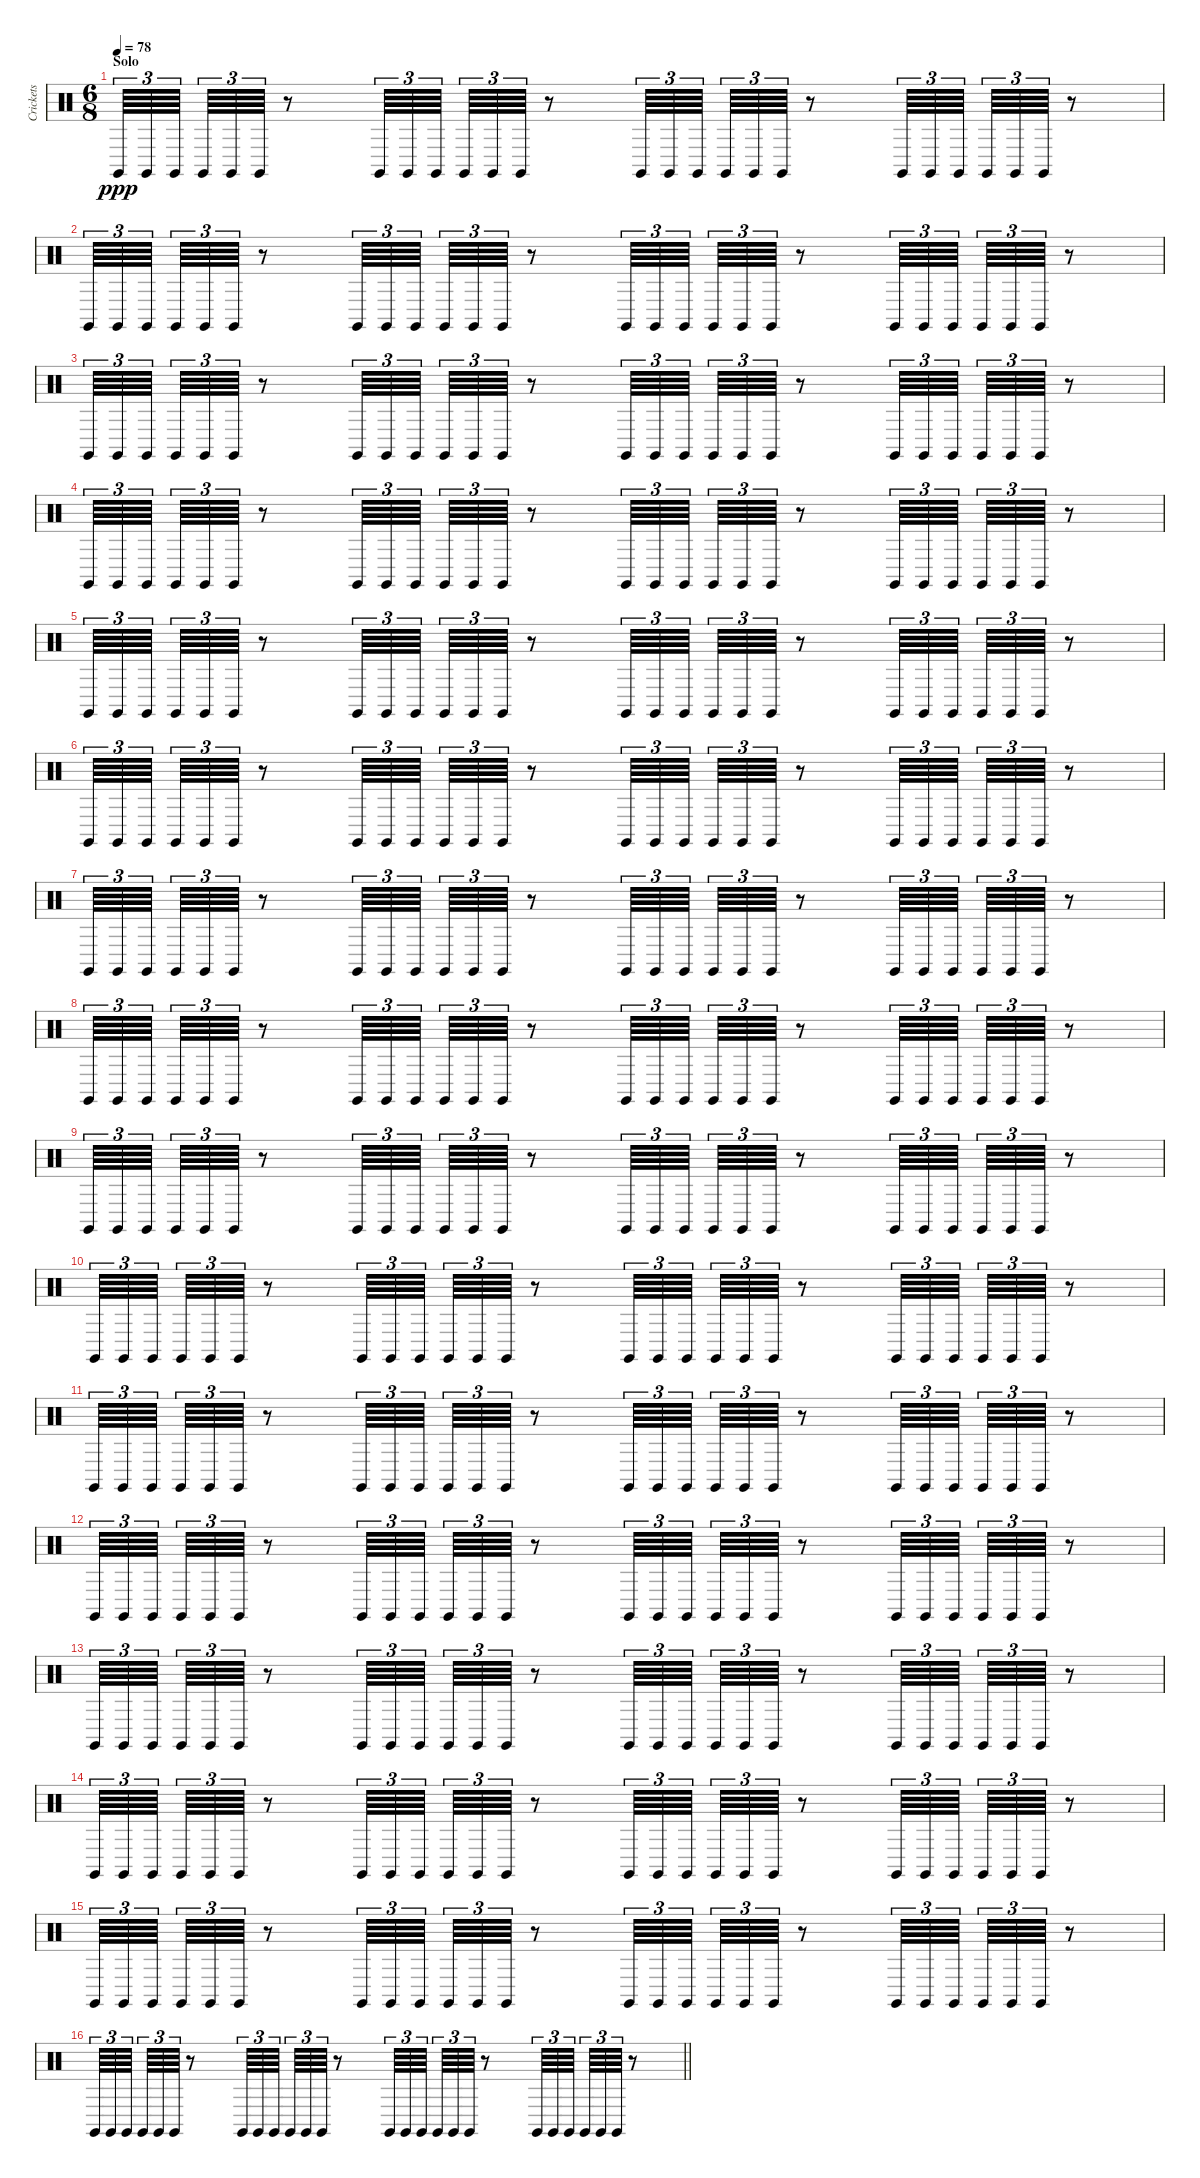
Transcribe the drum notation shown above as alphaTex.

\track ("Crickets" "Crickets") {instrument percussion}
\staff {score}
\articulation defaults
\ts (6 8)
\section ("" "Solo")
\tempo 78
\clef neutral
\ks c "Claves (hit)".64{tu (3 2) dy ppp} "Claves (hit)".64{tu (3 2)} "Claves (hit)".64{tu (3 2) beam splitsecondary} "Claves (hit)".64{tu (3 2)} "Claves (hit)".64{tu (3 2)} "Claves (hit)".64{tu (3 2)}
r.8 "Claves (hit)".64{tu (3 2)} "Claves (hit)".64{tu (3 2)} "Claves (hit)".64{tu (3 2) beam splitsecondary} "Claves (hit)".64{tu (3 2)} "Claves (hit)".64{tu (3 2)} "Claves (hit)".64{tu (3 2)} r.8 "Claves (hit)".64{tu (3 2)} "Claves (hit)".64{tu (3 2)} "Claves (hit)".64{tu (3 2) beam splitsecondary} "Claves (hit)".64{tu (3 2)} "Claves (hit)".64{tu (3 2)} "Claves (hit)".64{tu (3 2)} r.8 "Claves (hit)".64{tu (3 2)} "Claves (hit)".64{tu (3 2)} "Claves (hit)".64{tu (3 2) beam splitsecondary} "Claves (hit)".64{tu (3 2)} "Claves (hit)".64{tu (3 2)} "Claves (hit)".64{tu (3 2)} r.8 |
"Claves (hit)".64{tu (3 2)} "Claves (hit)".64{tu (3 2)} "Claves (hit)".64{tu (3 2) beam splitsecondary} "Claves (hit)".64{tu (3 2)} "Claves (hit)".64{tu (3 2)} "Claves (hit)".64{tu (3 2)} r.8 "Claves (hit)".64{tu (3 2)} "Claves (hit)".64{tu (3 2)} "Claves (hit)".64{tu (3 2) beam splitsecondary} "Claves (hit)".64{tu (3 2)} "Claves (hit)".64{tu (3 2)} "Claves (hit)".64{tu (3 2)} r.8 "Claves (hit)".64{tu (3 2)} "Claves (hit)".64{tu (3 2)} "Claves (hit)".64{tu (3 2) beam splitsecondary} "Claves (hit)".64{tu (3 2)} "Claves (hit)".64{tu (3 2)} "Claves (hit)".64{tu (3 2)} r.8 "Claves (hit)".64{tu (3 2)} "Claves (hit)".64{tu (3 2)} "Claves (hit)".64{tu (3 2) beam splitsecondary} "Claves (hit)".64{tu (3 2)} "Claves (hit)".64{tu (3 2)} "Claves (hit)".64{tu (3 2)} r.8 |
"Claves (hit)".64{tu (3 2)} "Claves (hit)".64{tu (3 2)} "Claves (hit)".64{tu (3 2) beam splitsecondary} "Claves (hit)".64{tu (3 2)} "Claves (hit)".64{tu (3 2)} "Claves (hit)".64{tu (3 2)} r.8 "Claves (hit)".64{tu (3 2)} "Claves (hit)".64{tu (3 2)} "Claves (hit)".64{tu (3 2) beam splitsecondary} "Claves (hit)".64{tu (3 2)} "Claves (hit)".64{tu (3 2)} "Claves (hit)".64{tu (3 2)} r.8 "Claves (hit)".64{tu (3 2)} "Claves (hit)".64{tu (3 2)} "Claves (hit)".64{tu (3 2) beam splitsecondary} "Claves (hit)".64{tu (3 2)} "Claves (hit)".64{tu (3 2)} "Claves (hit)".64{tu (3 2)} r.8 "Claves (hit)".64{tu (3 2)} "Claves (hit)".64{tu (3 2)} "Claves (hit)".64{tu (3 2) beam splitsecondary} "Claves (hit)".64{tu (3 2)} "Claves (hit)".64{tu (3 2)} "Claves (hit)".64{tu (3 2)} r.8 |
"Claves (hit)".64{tu (3 2)} "Claves (hit)".64{tu (3 2)} "Claves (hit)".64{tu (3 2) beam splitsecondary} "Claves (hit)".64{tu (3 2)} "Claves (hit)".64{tu (3 2)} "Claves (hit)".64{tu (3 2)} r.8 "Claves (hit)".64{tu (3 2)} "Claves (hit)".64{tu (3 2)} "Claves (hit)".64{tu (3 2) beam splitsecondary} "Claves (hit)".64{tu (3 2)} "Claves (hit)".64{tu (3 2)} "Claves (hit)".64{tu (3 2)} r.8 "Claves (hit)".64{tu (3 2)} "Claves (hit)".64{tu (3 2)} "Claves (hit)".64{tu (3 2) beam splitsecondary} "Claves (hit)".64{tu (3 2)} "Claves (hit)".64{tu (3 2)} "Claves (hit)".64{tu (3 2)} r.8 "Claves (hit)".64{tu (3 2)} "Claves (hit)".64{tu (3 2)} "Claves (hit)".64{tu (3 2) beam splitsecondary} "Claves (hit)".64{tu (3 2)} "Claves (hit)".64{tu (3 2)} "Claves (hit)".64{tu (3 2)} r.8 |
"Claves (hit)".64{tu (3 2)} "Claves (hit)".64{tu (3 2)} "Claves (hit)".64{tu (3 2) beam splitsecondary} "Claves (hit)".64{tu (3 2)} "Claves (hit)".64{tu (3 2)} "Claves (hit)".64{tu (3 2)} r.8 "Claves (hit)".64{tu (3 2)} "Claves (hit)".64{tu (3 2)} "Claves (hit)".64{tu (3 2) beam splitsecondary} "Claves (hit)".64{tu (3 2)} "Claves (hit)".64{tu (3 2)} "Claves (hit)".64{tu (3 2)} r.8 "Claves (hit)".64{tu (3 2)} "Claves (hit)".64{tu (3 2)} "Claves (hit)".64{tu (3 2) beam splitsecondary} "Claves (hit)".64{tu (3 2)} "Claves (hit)".64{tu (3 2)} "Claves (hit)".64{tu (3 2)} r.8 "Claves (hit)".64{tu (3 2)} "Claves (hit)".64{tu (3 2)} "Claves (hit)".64{tu (3 2) beam splitsecondary} "Claves (hit)".64{tu (3 2)} "Claves (hit)".64{tu (3 2)} "Claves (hit)".64{tu (3 2)} r.8 |
"Claves (hit)".64{tu (3 2)} "Claves (hit)".64{tu (3 2)} "Claves (hit)".64{tu (3 2) beam splitsecondary} "Claves (hit)".64{tu (3 2)} "Claves (hit)".64{tu (3 2)} "Claves (hit)".64{tu (3 2)} r.8 "Claves (hit)".64{tu (3 2)} "Claves (hit)".64{tu (3 2)} "Claves (hit)".64{tu (3 2) beam splitsecondary} "Claves (hit)".64{tu (3 2)} "Claves (hit)".64{tu (3 2)} "Claves (hit)".64{tu (3 2)} r.8 "Claves (hit)".64{tu (3 2)} "Claves (hit)".64{tu (3 2)} "Claves (hit)".64{tu (3 2) beam splitsecondary} "Claves (hit)".64{tu (3 2)} "Claves (hit)".64{tu (3 2)} "Claves (hit)".64{tu (3 2)} r.8 "Claves (hit)".64{tu (3 2)} "Claves (hit)".64{tu (3 2)} "Claves (hit)".64{tu (3 2) beam splitsecondary} "Claves (hit)".64{tu (3 2)} "Claves (hit)".64{tu (3 2)} "Claves (hit)".64{tu (3 2)} r.8 |
"Claves (hit)".64{tu (3 2)} "Claves (hit)".64{tu (3 2)} "Claves (hit)".64{tu (3 2) beam splitsecondary} "Claves (hit)".64{tu (3 2)} "Claves (hit)".64{tu (3 2)} "Claves (hit)".64{tu (3 2)} r.8 "Claves (hit)".64{tu (3 2)} "Claves (hit)".64{tu (3 2)} "Claves (hit)".64{tu (3 2) beam splitsecondary} "Claves (hit)".64{tu (3 2)} "Claves (hit)".64{tu (3 2)} "Claves (hit)".64{tu (3 2)} r.8 "Claves (hit)".64{tu (3 2)} "Claves (hit)".64{tu (3 2)} "Claves (hit)".64{tu (3 2) beam splitsecondary} "Claves (hit)".64{tu (3 2)} "Claves (hit)".64{tu (3 2)} "Claves (hit)".64{tu (3 2)} r.8 "Claves (hit)".64{tu (3 2)} "Claves (hit)".64{tu (3 2)} "Claves (hit)".64{tu (3 2) beam splitsecondary} "Claves (hit)".64{tu (3 2)} "Claves (hit)".64{tu (3 2)} "Claves (hit)".64{tu (3 2)} r.8 |
"Claves (hit)".64{tu (3 2)} "Claves (hit)".64{tu (3 2)} "Claves (hit)".64{tu (3 2) beam splitsecondary} "Claves (hit)".64{tu (3 2)} "Claves (hit)".64{tu (3 2)} "Claves (hit)".64{tu (3 2)} r.8 "Claves (hit)".64{tu (3 2)} "Claves (hit)".64{tu (3 2)} "Claves (hit)".64{tu (3 2) beam splitsecondary} "Claves (hit)".64{tu (3 2)} "Claves (hit)".64{tu (3 2)} "Claves (hit)".64{tu (3 2)} r.8 "Claves (hit)".64{tu (3 2)} "Claves (hit)".64{tu (3 2)} "Claves (hit)".64{tu (3 2) beam splitsecondary} "Claves (hit)".64{tu (3 2)} "Claves (hit)".64{tu (3 2)} "Claves (hit)".64{tu (3 2)} r.8 "Claves (hit)".64{tu (3 2)} "Claves (hit)".64{tu (3 2)} "Claves (hit)".64{tu (3 2) beam splitsecondary} "Claves (hit)".64{tu (3 2)} "Claves (hit)".64{tu (3 2)} "Claves (hit)".64{tu (3 2)} r.8 |
"Claves (hit)".64{tu (3 2)} "Claves (hit)".64{tu (3 2)} "Claves (hit)".64{tu (3 2) beam splitsecondary} "Claves (hit)".64{tu (3 2)} "Claves (hit)".64{tu (3 2)} "Claves (hit)".64{tu (3 2)} r.8 "Claves (hit)".64{tu (3 2)} "Claves (hit)".64{tu (3 2)} "Claves (hit)".64{tu (3 2) beam splitsecondary} "Claves (hit)".64{tu (3 2)} "Claves (hit)".64{tu (3 2)} "Claves (hit)".64{tu (3 2)} r.8 "Claves (hit)".64{tu (3 2)} "Claves (hit)".64{tu (3 2)} "Claves (hit)".64{tu (3 2) beam splitsecondary} "Claves (hit)".64{tu (3 2)} "Claves (hit)".64{tu (3 2)} "Claves (hit)".64{tu (3 2)} r.8 "Claves (hit)".64{tu (3 2)} "Claves (hit)".64{tu (3 2)} "Claves (hit)".64{tu (3 2) beam splitsecondary} "Claves (hit)".64{tu (3 2)} "Claves (hit)".64{tu (3 2)} "Claves (hit)".64{tu (3 2)} r.8 |
"Claves (hit)".64{tu (3 2)} "Claves (hit)".64{tu (3 2)} "Claves (hit)".64{tu (3 2) beam splitsecondary} "Claves (hit)".64{tu (3 2)} "Claves (hit)".64{tu (3 2)} "Claves (hit)".64{tu (3 2)} r.8 "Claves (hit)".64{tu (3 2)} "Claves (hit)".64{tu (3 2)} "Claves (hit)".64{tu (3 2) beam splitsecondary} "Claves (hit)".64{tu (3 2)} "Claves (hit)".64{tu (3 2)} "Claves (hit)".64{tu (3 2)} r.8 "Claves (hit)".64{tu (3 2)} "Claves (hit)".64{tu (3 2)} "Claves (hit)".64{tu (3 2) beam splitsecondary} "Claves (hit)".64{tu (3 2)} "Claves (hit)".64{tu (3 2)} "Claves (hit)".64{tu (3 2)} r.8 "Claves (hit)".64{tu (3 2)} "Claves (hit)".64{tu (3 2)} "Claves (hit)".64{tu (3 2) beam splitsecondary} "Claves (hit)".64{tu (3 2)} "Claves (hit)".64{tu (3 2)} "Claves (hit)".64{tu (3 2)} r.8 |
"Claves (hit)".64{tu (3 2)} "Claves (hit)".64{tu (3 2)} "Claves (hit)".64{tu (3 2) beam splitsecondary} "Claves (hit)".64{tu (3 2)} "Claves (hit)".64{tu (3 2)} "Claves (hit)".64{tu (3 2)} r.8 "Claves (hit)".64{tu (3 2)} "Claves (hit)".64{tu (3 2)} "Claves (hit)".64{tu (3 2) beam splitsecondary} "Claves (hit)".64{tu (3 2)} "Claves (hit)".64{tu (3 2)} "Claves (hit)".64{tu (3 2)} r.8 "Claves (hit)".64{tu (3 2)} "Claves (hit)".64{tu (3 2)} "Claves (hit)".64{tu (3 2) beam splitsecondary} "Claves (hit)".64{tu (3 2)} "Claves (hit)".64{tu (3 2)} "Claves (hit)".64{tu (3 2)} r.8 "Claves (hit)".64{tu (3 2)} "Claves (hit)".64{tu (3 2)} "Claves (hit)".64{tu (3 2) beam splitsecondary} "Claves (hit)".64{tu (3 2)} "Claves (hit)".64{tu (3 2)} "Claves (hit)".64{tu (3 2)} r.8 |
"Claves (hit)".64{tu (3 2)} "Claves (hit)".64{tu (3 2)} "Claves (hit)".64{tu (3 2) beam splitsecondary} "Claves (hit)".64{tu (3 2)} "Claves (hit)".64{tu (3 2)} "Claves (hit)".64{tu (3 2)} r.8 "Claves (hit)".64{tu (3 2)} "Claves (hit)".64{tu (3 2)} "Claves (hit)".64{tu (3 2) beam splitsecondary} "Claves (hit)".64{tu (3 2)} "Claves (hit)".64{tu (3 2)} "Claves (hit)".64{tu (3 2)} r.8 "Claves (hit)".64{tu (3 2)} "Claves (hit)".64{tu (3 2)} "Claves (hit)".64{tu (3 2) beam splitsecondary} "Claves (hit)".64{tu (3 2)} "Claves (hit)".64{tu (3 2)} "Claves (hit)".64{tu (3 2)} r.8 "Claves (hit)".64{tu (3 2)} "Claves (hit)".64{tu (3 2)} "Claves (hit)".64{tu (3 2) beam splitsecondary} "Claves (hit)".64{tu (3 2)} "Claves (hit)".64{tu (3 2)} "Claves (hit)".64{tu (3 2)} r.8 |
"Claves (hit)".64{tu (3 2)} "Claves (hit)".64{tu (3 2)} "Claves (hit)".64{tu (3 2) beam splitsecondary} "Claves (hit)".64{tu (3 2)} "Claves (hit)".64{tu (3 2)} "Claves (hit)".64{tu (3 2)} r.8 "Claves (hit)".64{tu (3 2)} "Claves (hit)".64{tu (3 2)} "Claves (hit)".64{tu (3 2) beam splitsecondary} "Claves (hit)".64{tu (3 2)} "Claves (hit)".64{tu (3 2)} "Claves (hit)".64{tu (3 2)} r.8 "Claves (hit)".64{tu (3 2)} "Claves (hit)".64{tu (3 2)} "Claves (hit)".64{tu (3 2) beam splitsecondary} "Claves (hit)".64{tu (3 2)} "Claves (hit)".64{tu (3 2)} "Claves (hit)".64{tu (3 2)} r.8 "Claves (hit)".64{tu (3 2)} "Claves (hit)".64{tu (3 2)} "Claves (hit)".64{tu (3 2) beam splitsecondary} "Claves (hit)".64{tu (3 2)} "Claves (hit)".64{tu (3 2)} "Claves (hit)".64{tu (3 2)} r.8 |
"Claves (hit)".64{tu (3 2)} "Claves (hit)".64{tu (3 2)} "Claves (hit)".64{tu (3 2) beam splitsecondary} "Claves (hit)".64{tu (3 2)} "Claves (hit)".64{tu (3 2)} "Claves (hit)".64{tu (3 2)} r.8 "Claves (hit)".64{tu (3 2)} "Claves (hit)".64{tu (3 2)} "Claves (hit)".64{tu (3 2) beam splitsecondary} "Claves (hit)".64{tu (3 2)} "Claves (hit)".64{tu (3 2)} "Claves (hit)".64{tu (3 2)} r.8 "Claves (hit)".64{tu (3 2)} "Claves (hit)".64{tu (3 2)} "Claves (hit)".64{tu (3 2) beam splitsecondary} "Claves (hit)".64{tu (3 2)} "Claves (hit)".64{tu (3 2)} "Claves (hit)".64{tu (3 2)} r.8 "Claves (hit)".64{tu (3 2)} "Claves (hit)".64{tu (3 2)} "Claves (hit)".64{tu (3 2) beam splitsecondary} "Claves (hit)".64{tu (3 2)} "Claves (hit)".64{tu (3 2)} "Claves (hit)".64{tu (3 2)} r.8 |
"Claves (hit)".64{tu (3 2)} "Claves (hit)".64{tu (3 2)} "Claves (hit)".64{tu (3 2) beam splitsecondary} "Claves (hit)".64{tu (3 2)} "Claves (hit)".64{tu (3 2)} "Claves (hit)".64{tu (3 2)} r.8 "Claves (hit)".64{tu (3 2)} "Claves (hit)".64{tu (3 2)} "Claves (hit)".64{tu (3 2) beam splitsecondary} "Claves (hit)".64{tu (3 2)} "Claves (hit)".64{tu (3 2)} "Claves (hit)".64{tu (3 2)} r.8 "Claves (hit)".64{tu (3 2)} "Claves (hit)".64{tu (3 2)} "Claves (hit)".64{tu (3 2) beam splitsecondary} "Claves (hit)".64{tu (3 2)} "Claves (hit)".64{tu (3 2)} "Claves (hit)".64{tu (3 2)} r.8 "Claves (hit)".64{tu (3 2)} "Claves (hit)".64{tu (3 2)} "Claves (hit)".64{tu (3 2) beam splitsecondary} "Claves (hit)".64{tu (3 2)} "Claves (hit)".64{tu (3 2)} "Claves (hit)".64{tu (3 2)} r.8 |
\barLineRight lightlight "Claves (hit)".64{tu (3 2)} "Claves (hit)".64{tu (3 2)} "Claves (hit)".64{tu (3 2) beam splitsecondary} "Claves (hit)".64{tu (3 2)} "Claves (hit)".64{tu (3 2)} "Claves (hit)".64{tu (3 2)}
r.8 "Claves (hit)".64{tu (3 2)} "Claves (hit)".64{tu (3 2)} "Claves (hit)".64{tu (3 2) beam splitsecondary} "Claves (hit)".64{tu (3 2)} "Claves (hit)".64{tu (3 2)} "Claves (hit)".64{tu (3 2)} r.8 "Claves (hit)".64{tu (3 2)} "Claves (hit)".64{tu (3 2)} "Claves (hit)".64{tu (3 2) beam splitsecondary} "Claves (hit)".64{tu (3 2)} "Claves (hit)".64{tu (3 2)} "Claves (hit)".64{tu (3 2)} r.8 "Claves (hit)".64{tu (3 2)} "Claves (hit)".64{tu (3 2)} "Claves (hit)".64{tu (3 2) beam splitsecondary} "Claves (hit)".64{tu (3 2)} "Claves (hit)".64{tu (3 2)} "Claves (hit)".64{tu (3 2)} r.8
